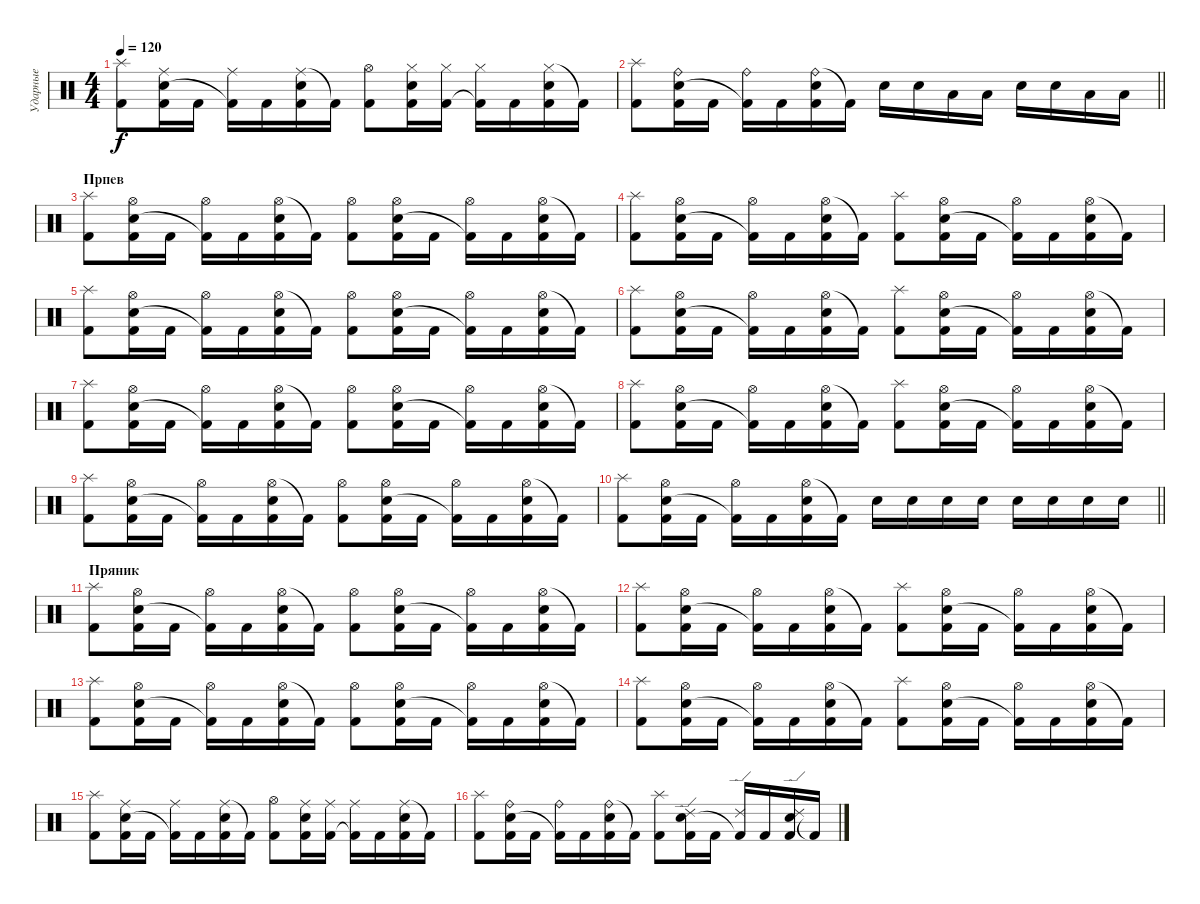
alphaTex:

\track ("Ударные" "Ударные") {instrument percussion}
\staff {score}
\articulation defaults
\ts (4 4)
\tempo 120
\clef neutral
\ks c
("Splash (hit)" "Kick (hit) 2").8{dy f} ("Ride (middle)" "Electric Snare (hit)" "Kick (hit) 2").16 "Kick (hit) 2".16 ("Ride (middle)" "Kick (hit) 2"{t}).16 "Kick (hit) 2".16 ("Ride (middle)" "Electric Snare (hit)" "Kick (hit) 2").16 "Kick (hit) 2"{t}.16 ("Hi-Hat (open)" "Kick (hit) 2").8 ("Hi-Hat (closed)" "Electric Snare (hit)" "Kick (hit) 2").16 ("Hi-Hat (closed)" "Kick (hit) 2").16 ("Hi-Hat (closed)" "Kick (hit) 2"{t}).16 "Kick (hit) 2".16 ("Hi-Hat (closed)" "Electric Snare (hit)" "Kick (hit) 2").16 "Kick (hit) 2"{t}.16 |
\barLineRight lightlight
("Splash (hit)" "Kick (hit) 2").8 ("Ride (bell)" "Electric Snare (hit)" "Kick (hit) 2").16 "Kick (hit) 2".16 ("Ride (bell)" "Kick (hit) 2"{t}).16 "Kick (hit) 2".16 ("Ride (bell)" "Electric Snare (hit)" "Kick (hit) 2").16 "Kick (hit) 2"{t}.16 "Electric Snare (hit)".16 "Electric Snare (hit)".16 "Low Tom (hit)".16 "Low Tom (hit)".16 "Electric Snare (hit)".16 "Electric Snare (hit)".16 "Low Tom (hit)".16 "Low Tom (hit)".16 |
\section ("" "Прпев")
("Splash (hit)" "Kick (hit) 2").8 ("Hi-Hat (open)" "Electric Snare (hit)" "Kick (hit) 2").16 "Kick (hit) 2".16 ("Hi-Hat (open)" "Kick (hit) 2"{t}).16 "Kick (hit) 2".16 ("Hi-Hat (open)" "Electric Snare (hit)" "Kick (hit) 2").16 "Kick (hit) 2"{t}.16 ("Hi-Hat (open)" "Kick (hit) 2").8 ("Hi-Hat (open)" "Electric Snare (hit)" "Kick (hit) 2").16 "Kick (hit) 2".16 ("Hi-Hat (open)" "Kick (hit) 2"{t}).16 "Kick (hit) 2".16 ("Hi-Hat (open)" "Electric Snare (hit)" "Kick (hit) 2").16 "Kick (hit) 2"{t}.16 |
("Splash (hit)" "Kick (hit) 2").8 ("Hi-Hat (open)" "Electric Snare (hit)" "Kick (hit) 2").16 "Kick (hit) 2".16 ("Hi-Hat (open)" "Kick (hit) 2"{t}).16 "Kick (hit) 2".16 ("Hi-Hat (open)" "Electric Snare (hit)" "Kick (hit) 2").16 "Kick (hit) 2"{t}.16 ("Splash (hit)" "Kick (hit) 2").8 ("Hi-Hat (open)" "Electric Snare (hit)" "Kick (hit) 2").16 "Kick (hit) 2".16 ("Hi-Hat (open)" "Kick (hit) 2"{t}).16 "Kick (hit) 2".16 ("Hi-Hat (open)" "Electric Snare (hit)" "Kick (hit) 2").16 "Kick (hit) 2"{t}.16 |
("Splash (hit)" "Kick (hit) 2").8 ("Hi-Hat (open)" "Electric Snare (hit)" "Kick (hit) 2").16 "Kick (hit) 2".16 ("Hi-Hat (open)" "Kick (hit) 2"{t}).16 "Kick (hit) 2".16 ("Hi-Hat (open)" "Electric Snare (hit)" "Kick (hit) 2").16 "Kick (hit) 2"{t}.16 ("Hi-Hat (open)" "Kick (hit) 2").8 ("Hi-Hat (open)" "Electric Snare (hit)" "Kick (hit) 2").16 "Kick (hit) 2".16 ("Hi-Hat (open)" "Kick (hit) 2"{t}).16 "Kick (hit) 2".16 ("Hi-Hat (open)" "Electric Snare (hit)" "Kick (hit) 2").16 "Kick (hit) 2"{t}.16 |
("Splash (hit)" "Kick (hit) 2").8 ("Hi-Hat (open)" "Electric Snare (hit)" "Kick (hit) 2").16 "Kick (hit) 2".16 ("Hi-Hat (open)" "Kick (hit) 2"{t}).16 "Kick (hit) 2".16 ("Hi-Hat (open)" "Electric Snare (hit)" "Kick (hit) 2").16 "Kick (hit) 2"{t}.16 ("Splash (hit)" "Kick (hit) 2").8 ("Hi-Hat (open)" "Electric Snare (hit)" "Kick (hit) 2").16 "Kick (hit) 2".16 ("Hi-Hat (open)" "Kick (hit) 2"{t}).16 "Kick (hit) 2".16 ("Hi-Hat (open)" "Electric Snare (hit)" "Kick (hit) 2").16 "Kick (hit) 2"{t}.16 |
("Splash (hit)" "Kick (hit) 2").8 ("Hi-Hat (open)" "Electric Snare (hit)" "Kick (hit) 2").16 "Kick (hit) 2".16 ("Hi-Hat (open)" "Kick (hit) 2"{t}).16 "Kick (hit) 2".16 ("Hi-Hat (open)" "Electric Snare (hit)" "Kick (hit) 2").16 "Kick (hit) 2"{t}.16 ("Hi-Hat (open)" "Kick (hit) 2").8 ("Hi-Hat (open)" "Electric Snare (hit)" "Kick (hit) 2").16 "Kick (hit) 2".16 ("Hi-Hat (open)" "Kick (hit) 2"{t}).16 "Kick (hit) 2".16 ("Hi-Hat (open)" "Electric Snare (hit)" "Kick (hit) 2").16 "Kick (hit) 2"{t}.16 |
("Splash (hit)" "Kick (hit) 2").8 ("Hi-Hat (open)" "Electric Snare (hit)" "Kick (hit) 2").16 "Kick (hit) 2".16 ("Hi-Hat (open)" "Kick (hit) 2"{t}).16 "Kick (hit) 2".16 ("Hi-Hat (open)" "Electric Snare (hit)" "Kick (hit) 2").16 "Kick (hit) 2"{t}.16 ("Splash (hit)" "Kick (hit) 2").8 ("Hi-Hat (open)" "Electric Snare (hit)" "Kick (hit) 2").16 "Kick (hit) 2".16 ("Hi-Hat (open)" "Kick (hit) 2"{t}).16 "Kick (hit) 2".16 ("Hi-Hat (open)" "Electric Snare (hit)" "Kick (hit) 2").16 "Kick (hit) 2"{t}.16 |
("Splash (hit)" "Kick (hit) 2").8 ("Hi-Hat (open)" "Electric Snare (hit)" "Kick (hit) 2").16 "Kick (hit) 2".16 ("Hi-Hat (open)" "Kick (hit) 2"{t}).16 "Kick (hit) 2".16 ("Hi-Hat (open)" "Electric Snare (hit)" "Kick (hit) 2").16 "Kick (hit) 2"{t}.16 ("Hi-Hat (open)" "Kick (hit) 2").8 ("Hi-Hat (open)" "Electric Snare (hit)" "Kick (hit) 2").16 "Kick (hit) 2".16 ("Hi-Hat (open)" "Kick (hit) 2"{t}).16 "Kick (hit) 2".16 ("Hi-Hat (open)" "Electric Snare (hit)" "Kick (hit) 2").16 "Kick (hit) 2"{t}.16 |
\barLineRight lightlight
("Splash (hit)" "Kick (hit) 2").8 ("Hi-Hat (open)" "Electric Snare (hit)" "Kick (hit) 2").16 "Kick (hit) 2".16 ("Hi-Hat (open)" "Kick (hit) 2"{t}).16 "Kick (hit) 2".16 ("Hi-Hat (open)" "Electric Snare (hit)" "Kick (hit) 2").16 "Kick (hit) 2"{t}.16 "Electric Snare (hit)".16 "Electric Snare (hit)".16 "Electric Snare (hit)".16 "Electric Snare (hit)".16 "Electric Snare (hit)".16 "Electric Snare (hit)".16 "Electric Snare (hit)".16 "Electric Snare (hit)".16 |
\section ("" "Пряник")
("Splash (hit)" "Kick (hit) 2").8 ("Hi-Hat (open)" "Electric Snare (hit)" "Kick (hit) 2").16 "Kick (hit) 2".16 ("Hi-Hat (open)" "Kick (hit) 2"{t}).16 "Kick (hit) 2".16 ("Hi-Hat (open)" "Electric Snare (hit)" "Kick (hit) 2").16 "Kick (hit) 2"{t}.16 ("Hi-Hat (open)" "Kick (hit) 2").8 ("Hi-Hat (open)" "Electric Snare (hit)" "Kick (hit) 2").16 "Kick (hit) 2".16 ("Hi-Hat (open)" "Kick (hit) 2"{t}).16 "Kick (hit) 2".16 ("Hi-Hat (open)" "Electric Snare (hit)" "Kick (hit) 2").16 "Kick (hit) 2"{t}.16 |
("Splash (hit)" "Kick (hit) 2").8 ("Hi-Hat (open)" "Electric Snare (hit)" "Kick (hit) 2").16 "Kick (hit) 2".16 ("Hi-Hat (open)" "Kick (hit) 2"{t}).16 "Kick (hit) 2".16 ("Hi-Hat (open)" "Electric Snare (hit)" "Kick (hit) 2").16 "Kick (hit) 2"{t}.16 ("Splash (hit)" "Kick (hit) 2").8 ("Hi-Hat (open)" "Electric Snare (hit)" "Kick (hit) 2").16 "Kick (hit) 2".16 ("Hi-Hat (open)" "Kick (hit) 2"{t}).16 "Kick (hit) 2".16 ("Hi-Hat (open)" "Electric Snare (hit)" "Kick (hit) 2").16 "Kick (hit) 2"{t}.16 |
("Splash (hit)" "Kick (hit) 2").8 ("Hi-Hat (open)" "Electric Snare (hit)" "Kick (hit) 2").16 "Kick (hit) 2".16 ("Hi-Hat (open)" "Kick (hit) 2"{t}).16 "Kick (hit) 2".16 ("Hi-Hat (open)" "Electric Snare (hit)" "Kick (hit) 2").16 "Kick (hit) 2"{t}.16 ("Hi-Hat (open)" "Kick (hit) 2").8 ("Hi-Hat (open)" "Electric Snare (hit)" "Kick (hit) 2").16 "Kick (hit) 2".16 ("Hi-Hat (open)" "Kick (hit) 2"{t}).16 "Kick (hit) 2".16 ("Hi-Hat (open)" "Electric Snare (hit)" "Kick (hit) 2").16 "Kick (hit) 2"{t}.16 |
("Splash (hit)" "Kick (hit) 2").8 ("Hi-Hat (open)" "Electric Snare (hit)" "Kick (hit) 2").16 "Kick (hit) 2".16 ("Hi-Hat (open)" "Kick (hit) 2"{t}).16 "Kick (hit) 2".16 ("Hi-Hat (open)" "Electric Snare (hit)" "Kick (hit) 2").16 "Kick (hit) 2"{t}.16 ("Splash (hit)" "Kick (hit) 2").8 ("Hi-Hat (open)" "Electric Snare (hit)" "Kick (hit) 2").16 "Kick (hit) 2".16 ("Hi-Hat (open)" "Kick (hit) 2"{t}).16 "Kick (hit) 2".16 ("Hi-Hat (open)" "Electric Snare (hit)" "Kick (hit) 2").16 "Kick (hit) 2"{t}.16 |
("Splash (hit)" "Kick (hit) 2").8 ("Ride (middle)" "Electric Snare (hit)" "Kick (hit) 2").16 "Kick (hit) 2".16 ("Ride (middle)" "Kick (hit) 2"{t}).16 "Kick (hit) 2".16 ("Ride (middle)" "Electric Snare (hit)" "Kick (hit) 2").16 "Kick (hit) 2"{t}.16 ("Hi-Hat (open)" "Kick (hit) 2").8 ("Ride (middle)" "Electric Snare (hit)" "Kick (hit) 2").16 ("Ride (middle)" "Kick (hit) 2").16 ("Ride (middle)" "Kick (hit) 2"{t}).16 "Kick (hit) 2".16 ("Ride (middle)" "Electric Snare (hit)" "Kick (hit) 2").16 "Kick (hit) 2"{t}.16 |
("Splash (hit)" "Kick (hit) 2").8 ("Ride (bell)" "Electric Snare (hit)" "Kick (hit) 2").16 "Kick (hit) 2".16 ("Ride (bell)" "Kick (hit) 2"{t}).16 "Kick (hit) 2".16 ("Ride (bell)" "Electric Snare (hit)" "Kick (hit) 2").16 "Kick (hit) 2"{t}.16 ("Splash (hit)" "Kick (hit) 2").8 ("Ride (edge) 2" "Electric Snare (hit)" "Kick (hit) 2").16 "Kick (hit) 2".16 ("Ride (edge) 2" "Kick (hit) 2"{t}).16 "Kick (hit) 2".16 ("Ride (edge) 2" "Electric Snare (hit)" "Kick (hit) 2").16 "Kick (hit) 2"{t}.16
